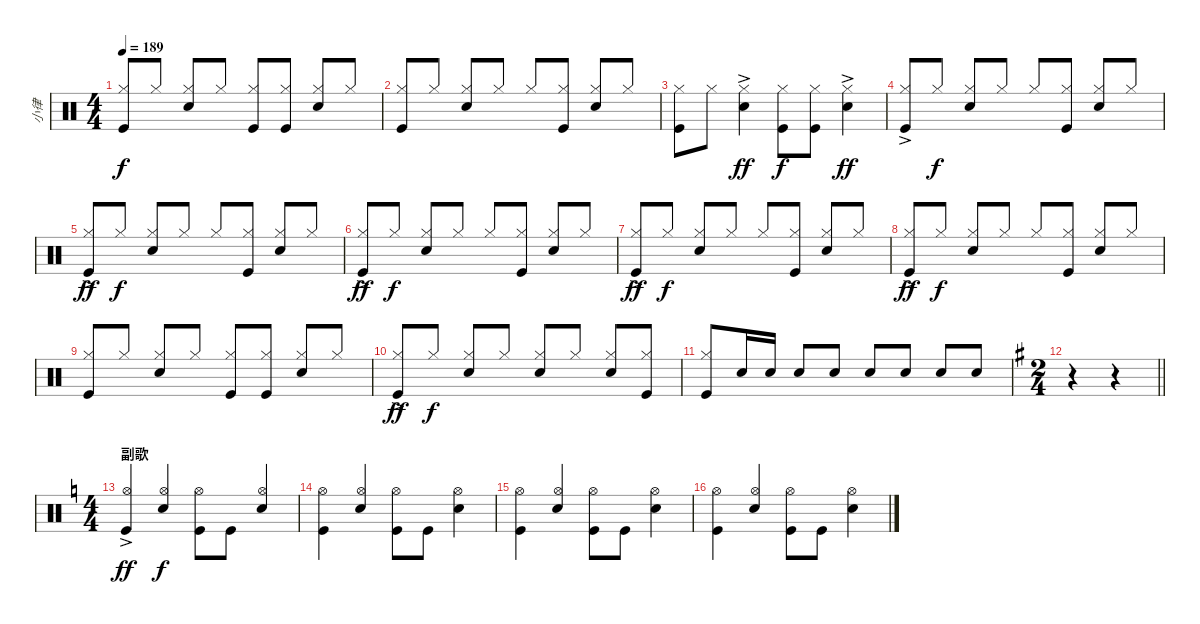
\track ("小律" "小律") {instrument percussion}
\staff {score}
\articulation defaults
\ts (4 4)
\tempo 189
\clef neutral
\ks c
("Hi-Hat (closed)" "Kick (hit)").8{dy f beam Up} "Hi-Hat (closed)".8{beam Up} ("Hi-Hat (closed)" "Snare (hit) 2").8{beam Up} "Hi-Hat (closed)".8{beam Up} ("Hi-Hat (closed)" "Kick (hit)").8{beam Up} ("Hi-Hat (closed)" "Kick (hit)").8{beam Up} ("Hi-Hat (closed)" "Snare (hit) 2").8{beam Up} "Hi-Hat (closed)".8{beam Up} |
("Hi-Hat (closed)" "Kick (hit)").8{beam Up} "Hi-Hat (closed)".8{beam Up} ("Hi-Hat (closed)" "Snare (hit) 2").8{beam Up} "Hi-Hat (closed)".8{beam Up} "Hi-Hat (closed)".8{beam Up} ("Hi-Hat (closed)" "Kick (hit)").8{beam Up} ("Hi-Hat (closed)" "Snare (hit) 2").8{beam Up} "Hi-Hat (closed)".8{beam Up} |
("Hi-Hat (closed)" "Kick (hit)").8{beam Down} "Hi-Hat (closed)".8{beam Down} ("Hi-Hat (closed)"{ac} "Snare (hit) 2").4{dy ff beam Down} ("Hi-Hat (closed)" "Kick (hit)").8{dy f beam Down} ("Hi-Hat (closed)" "Kick (hit)").8{beam Down} ("Hi-Hat (closed)"{ac} "Snare (hit) 2").4{dy ff beam Down} |
("Kick (hit)" "Hi-Hat (closed)"{ac}).8{beam Up} "Hi-Hat (closed)".8{dy f beam Up} ("Snare (hit) 2" "Hi-Hat (closed)").8{beam Up} "Hi-Hat (closed)".8{beam Up} "Hi-Hat (closed)".8{beam Up} ("Hi-Hat (closed)" "Kick (hit)").8{beam Up} ("Hi-Hat (closed)" "Snare (hit) 2").8{beam Up} "Hi-Hat (closed)".8{beam Up} |
("Kick (hit)" "Hi-Hat (closed)"{ac}).8{dy ff beam Up} "Hi-Hat (closed)".8{dy f beam Up} ("Snare (hit) 2" "Hi-Hat (closed)").8{beam Up} "Hi-Hat (closed)".8{beam Up} "Hi-Hat (closed)".8{beam Up} ("Hi-Hat (closed)" "Kick (hit)").8{beam Up} ("Hi-Hat (closed)" "Snare (hit) 2").8{beam Up} "Hi-Hat (closed)".8{beam Up} |
("Kick (hit)" "Hi-Hat (closed)"{ac}).8{dy ff beam Up} "Hi-Hat (closed)".8{dy f beam Up} ("Snare (hit) 2" "Hi-Hat (closed)").8{beam Up} "Hi-Hat (closed)".8{beam Up} "Hi-Hat (closed)".8{beam Up} ("Hi-Hat (closed)" "Kick (hit)").8{beam Up} ("Hi-Hat (closed)" "Snare (hit) 2").8{beam Up} "Hi-Hat (closed)".8{beam Up} |
("Kick (hit)" "Hi-Hat (closed)"{ac}).8{dy ff beam Up} "Hi-Hat (closed)".8{dy f beam Up} ("Snare (hit) 2" "Hi-Hat (closed)").8{beam Up} "Hi-Hat (closed)".8{beam Up} "Hi-Hat (closed)".8{beam Up} ("Hi-Hat (closed)" "Kick (hit)").8{beam Up} ("Hi-Hat (closed)" "Snare (hit) 2").8{beam Up} "Hi-Hat (closed)".8{beam Up} |
("Hi-Hat (closed)"{ac} "Kick (hit)").8{dy ff beam Up} "Hi-Hat (closed)".8{dy f beam Up} ("Hi-Hat (closed)" "Snare (hit) 2").8{beam Up} "Hi-Hat (closed)".8{beam Up} "Hi-Hat (closed)".8{beam Up} ("Hi-Hat (closed)" "Kick (hit)").8{beam Up} ("Hi-Hat (closed)" "Snare (hit) 2").8{beam Up} "Hi-Hat (closed)".8{beam Up} |
("Hi-Hat (closed)" "Kick (hit)").8{beam Up} "Hi-Hat (closed)".8{beam Up} ("Hi-Hat (closed)" "Snare (hit) 2").8{beam Up} "Hi-Hat (closed)".8{beam Up} ("Hi-Hat (closed)" "Kick (hit)").8{beam Up} ("Hi-Hat (closed)" "Kick (hit)").8{beam Up} ("Hi-Hat (closed)" "Snare (hit) 2").8{beam Up} "Hi-Hat (closed)".8{beam Up} |
("Hi-Hat (closed)"{ac} "Kick (hit)").8{dy ff beam Up} "Hi-Hat (closed)".8{dy f beam Up} ("Hi-Hat (closed)" "Snare (hit) 2").8{beam Up} "Hi-Hat (closed)".8{beam Up} ("Hi-Hat (closed)" "Snare (hit) 2").8{beam Up} "Hi-Hat (closed)".8{beam Up} ("Hi-Hat (closed)" "Snare (hit) 2").8{beam Up} ("Hi-Hat (closed)" "Kick (hit)").8{beam Up} |
("Hi-Hat (closed)" "Kick (hit)").8{beam Up} "Snare (hit) 2".16{beam Up} "Snare (hit) 2".16{beam Up} "Snare (hit) 2".8{beam Up} "Snare (hit) 2".8{beam Up} "Snare (hit) 2".8{beam Up} "Snare (hit) 2".8{beam Up} "Snare (hit) 2".8{beam Up} "Snare (hit) 2".8{beam Up} |
\ts (2 4)
\barLineRight lightlight
\ks g
r.4 r.4 |
\ts (4 4)
\section ("" "副歌")
\ks c
("Kick (hit)" "Hi-Hat (open)"{ac}).4{dy ff beam Up} ("Hi-Hat (open)" "Snare (hit) 2").4{dy f beam Up} ("Hi-Hat (open)" "Kick (hit)").8 "Kick (hit)".8 ("Hi-Hat (open)" "Snare (hit) 2").4{beam Up} |
("Hi-Hat (open)" "Kick (hit)").4 ("Hi-Hat (open)" "Snare (hit) 2").4{beam Up} ("Hi-Hat (open)" "Kick (hit)").8 "Kick (hit)".8 ("Hi-Hat (open)" "Snare (hit) 2").4 |
("Hi-Hat (open)" "Kick (hit)").4 ("Hi-Hat (open)" "Snare (hit) 2").4{beam Up} ("Hi-Hat (open)" "Kick (hit)").8 "Kick (hit)".8 ("Hi-Hat (open)" "Snare (hit) 2").4 |
("Hi-Hat (open)" "Kick (hit)").4 ("Hi-Hat (open)" "Snare (hit) 2").4{beam Up} ("Hi-Hat (open)" "Kick (hit)").8 "Kick (hit)".8 ("Hi-Hat (open)" "Snare (hit) 2").4
